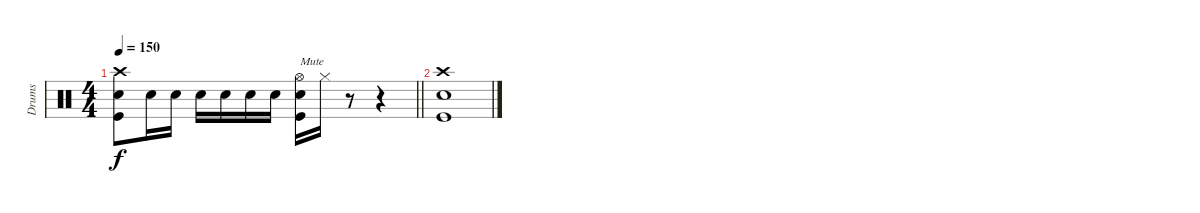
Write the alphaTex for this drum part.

\track ("Drums" "Drums") {instrument percussion}
\staff {score}
\articulation defaults
\ts (4 4)
\tempo 150
\clef neutral
\barLineRight lightlight
\ks c
("Crash high (hit)" "Snare (hit) 2" "Kick (hit)").8{dy f} "Snare (hit) 2".16 "Snare (hit) 2".16 "Snare (hit) 2".16 "Snare (hit) 2".16 "Snare (hit) 2".16 "Snare (hit) 2".16 ("Hi-Hat (open)" "Snare (hit) 2" "Kick (hit)").16{txt "Mute"} "Hi-Hat (closed)".16 r.8 r.4 |
("Crash high (hit)" "Snare (hit) 2" "Kick (hit)").1
